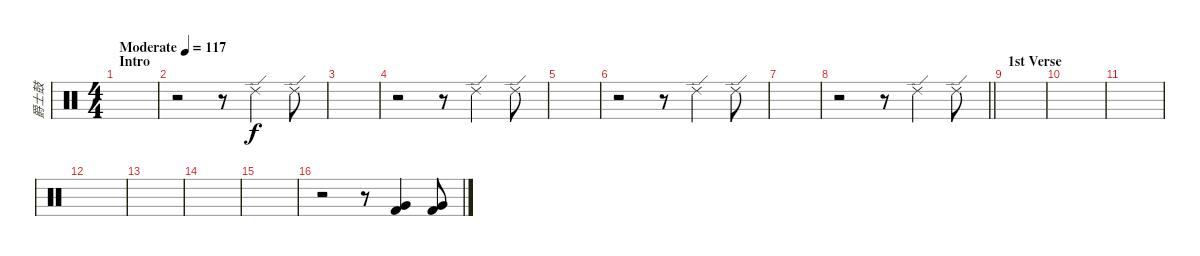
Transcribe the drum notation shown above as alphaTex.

\track ("爵士鼓" "爵士鼓") {instrument percussion}
\staff {score}
\articulation defaults
\ts (4 4)
\section ("" "Intro")
\tempo (117 "Moderate")
\clef neutral
\ks c
|
r.2 r.8 "Ride (edge) 2".4 "Ride (edge) 2".8 |
|
r.2 r.8 "Ride (edge) 2".4 "Ride (edge) 2".8 |
|
r.2 r.8 "Ride (edge) 2".4 "Ride (edge) 2".8 |
|
\barLineRight lightlight
r.2 r.8 "Ride (edge) 2".4 "Ride (edge) 2".8 |
\section ("" "1st Verse")
|
|
|
|
|
|
|
r.2 r.8 ("Very Low Tom (hit)" "Kick (hit) 2").4 ("Very Low Tom (hit)" "Kick (hit) 2").8
